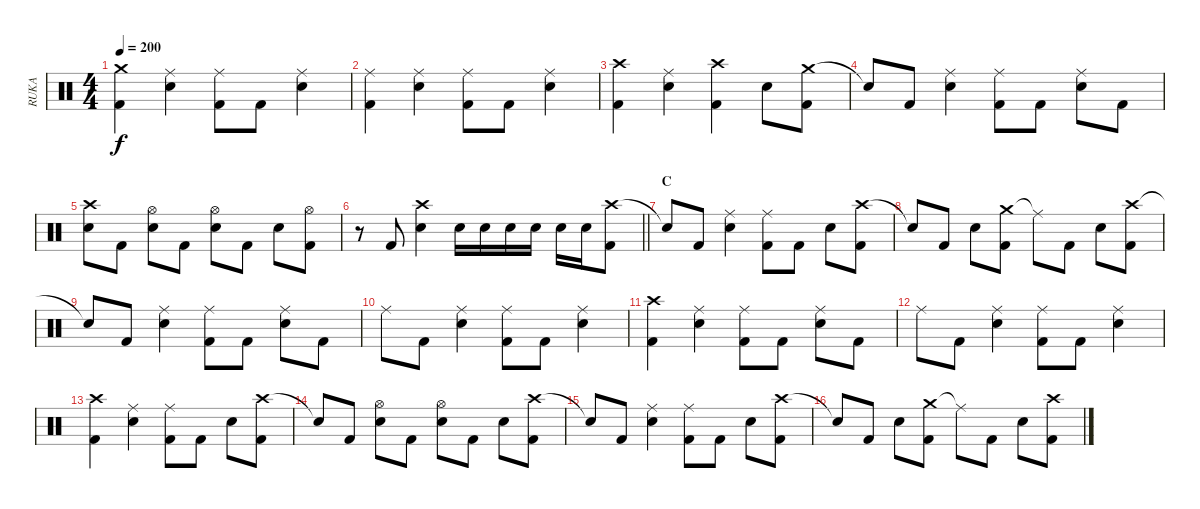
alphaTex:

\track ("RUKA" "RUKA") {instrument percussion}
\staff {score}
\articulation defaults
\ts (4 4)
\tempo 200
\clef neutral
\ks c
("Crash medium (hit)" "Kick (hit) 2").4{dy f} ("Ride (middle)" "Snare (hit) 2").4 ("Ride (middle)" "Kick (hit) 2").8 "Kick (hit) 2".8 ("Ride (middle)" "Snare (hit) 2").4 |
("Ride (middle)" "Kick (hit) 2").4 ("Ride (middle)" "Snare (hit) 2").4 ("Ride (middle)" "Kick (hit) 2").8 "Kick (hit) 2".8 ("Ride (middle)" "Snare (hit) 2").4 |
("Crash high (hit)" "Kick (hit) 2").4 ("Ride (middle)" "Snare (hit) 2").4 ("Crash high (hit)" "Kick (hit) 2").4 "Snare (hit) 2".8 ("Crash medium (hit)" "Kick (hit) 2").8 |
"Snare (hit)"{t}.8 "Kick (hit) 2".8 ("Ride (middle)" "Snare (hit) 2").4 ("Ride (middle)" "Kick (hit) 2").8 "Kick (hit) 2".8 ("Ride (middle)" "Snare (hit) 2").8 "Kick (hit) 2".8 |
("Crash high (hit)" "Snare (hit) 2").8 "Kick (hit) 2".8 ("Hi-Hat (open)" "Snare (hit) 2").8 "Kick (hit) 2".8 ("Hi-Hat (open)" "Snare (hit) 2").8 "Kick (hit) 2".8 "Snare (hit) 2".8 ("Hi-Hat (open)" "Kick (hit) 2").8 |
\barLineRight lightlight
r.8 "Kick (hit) 2".8 ("Crash high (hit)" "Snare (hit) 2").4 "Snare (hit) 2".16 "Snare (hit) 2".16 "Snare (hit) 2".16 "Snare (hit) 2".16 "Snare (hit) 2".16 "Snare (hit) 2".16 ("Crash high (hit)" "Kick (hit) 2").8 |
\section ("" "C")
"Snare (hit)"{t}.8 "Kick (hit) 2".8 ("Ride (middle)" "Snare (hit) 2").4 ("Ride (middle)" "Kick (hit) 2").8 "Kick (hit) 2".8 "Snare (hit) 2".8 ("Crash high (hit)" "Kick (hit) 2").8 |
"Snare (hit)"{t}.8 "Kick (hit) 2".8 "Snare (hit) 2".8 ("Crash medium (hit)" "Kick (hit) 2").8 "Ride (middle)"{t}.8 "Kick (hit) 2".8 "Snare (hit) 2".8 ("Crash high (hit)" "Kick (hit) 2").8 |
"Snare (hit)"{t}.8 "Kick (hit) 2".8 ("Ride (middle)" "Snare (hit) 2").4 ("Ride (middle)" "Kick (hit) 2").8 "Kick (hit) 2".8 ("Ride (middle)" "Snare (hit) 2").8 "Kick (hit) 2".8 |
"Ride (middle)".8 "Kick (hit) 2".8 ("Ride (middle)" "Snare (hit) 2").4 ("Ride (middle)" "Kick (hit) 2").8 "Kick (hit) 2".8 ("Ride (middle)" "Snare (hit) 2").4 |
("Crash high (hit)" "Kick (hit) 2").4 ("Ride (middle)" "Snare (hit) 2").4 ("Ride (middle)" "Kick (hit) 2").8 "Kick (hit) 2".8 ("Ride (middle)" "Snare (hit) 2").8 "Kick (hit) 2".8 |
"Ride (middle)".8 "Kick (hit) 2".8 ("Ride (middle)" "Snare (hit) 2").4 ("Ride (middle)" "Kick (hit) 2").8 "Kick (hit) 2".8 ("Ride (middle)" "Snare (hit) 2").4 |
("Crash high (hit)" "Kick (hit) 2").4 ("Ride (middle)" "Snare (hit) 2").4 ("Ride (middle)" "Kick (hit) 2").8 "Kick (hit) 2".8 "Snare (hit) 2".8 ("Crash high (hit)" "Kick (hit) 2").8 |
"Snare (hit)"{t}.8 "Kick (hit) 2".8 ("Hi-Hat (open)" "Snare (hit) 2").8 "Kick (hit) 2".8 ("Hi-Hat (open)" "Snare (hit) 2").8 "Kick (hit) 2".8 "Snare (hit) 2".8 ("Crash high (hit)" "Kick (hit) 2").8 |
"Snare (hit)"{t}.8 "Kick (hit) 2".8 ("Ride (middle)" "Snare (hit) 2").4 ("Ride (middle)" "Kick (hit) 2").8 "Kick (hit) 2".8 "Snare (hit) 2".8 ("Crash high (hit)" "Kick (hit) 2").8 |
"Snare (hit)"{t}.8 "Kick (hit) 2".8 "Snare (hit) 2".8 ("Crash medium (hit)" "Kick (hit) 2").8 "Ride (middle)"{t}.8 "Kick (hit) 2".8 "Snare (hit) 2".8 ("Crash high (hit)" "Kick (hit) 2").8
